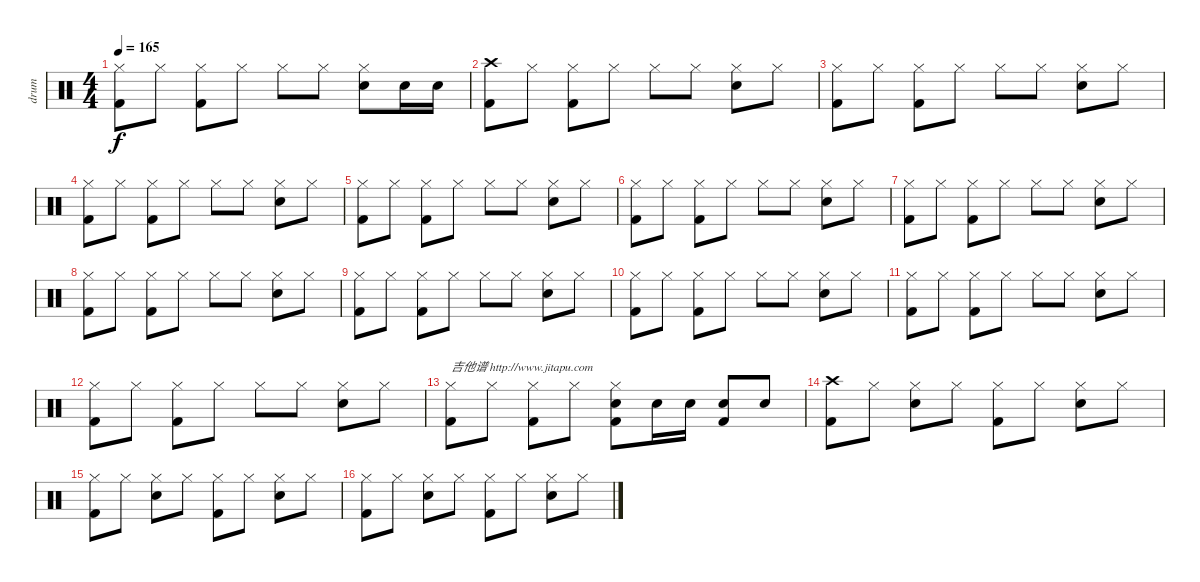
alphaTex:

\track ("drum" "drum") {instrument percussion}
\staff {score}
\articulation defaults
\ts (4 4)
\tempo 165
\clef neutral
\ks c
("Hi-Hat (closed)" "Kick (hit) 2").8{dy f} "Hi-Hat (closed)".8 ("Hi-Hat (closed)" "Kick (hit) 2").8 "Hi-Hat (closed)".8 "Hi-Hat (closed)".8 "Hi-Hat (closed)".8 ("Hi-Hat (closed)" "Snare (hit) 2").8 "Snare (hit) 2".16 "Snare (hit) 2".16 |
("Crash high (hit)" "Kick (hit) 2").8 "Hi-Hat (closed)".8 ("Hi-Hat (closed)" "Kick (hit) 2").8 "Hi-Hat (closed)".8 "Hi-Hat (closed)".8 "Hi-Hat (closed)".8 ("Hi-Hat (closed)" "Snare (hit) 2").8 "Hi-Hat (closed)".8 |
("Hi-Hat (closed)" "Kick (hit) 2").8 "Hi-Hat (closed)".8 ("Hi-Hat (closed)" "Kick (hit) 2").8 "Hi-Hat (closed)".8 "Hi-Hat (closed)".8 "Hi-Hat (closed)".8 ("Hi-Hat (closed)" "Snare (hit) 2").8 "Hi-Hat (closed)".8 |
("Hi-Hat (closed)" "Kick (hit) 2").8 "Hi-Hat (closed)".8 ("Hi-Hat (closed)" "Kick (hit) 2").8 "Hi-Hat (closed)".8 "Hi-Hat (closed)".8 "Hi-Hat (closed)".8 ("Hi-Hat (closed)" "Snare (hit) 2").8 "Hi-Hat (closed)".8 |
("Hi-Hat (closed)" "Kick (hit) 2").8 "Hi-Hat (closed)".8 ("Hi-Hat (closed)" "Kick (hit) 2").8 "Hi-Hat (closed)".8 "Hi-Hat (closed)".8 "Hi-Hat (closed)".8 ("Hi-Hat (closed)" "Snare (hit) 2").8 "Hi-Hat (closed)".8 |
("Hi-Hat (closed)" "Kick (hit) 2").8 "Hi-Hat (closed)".8 ("Hi-Hat (closed)" "Kick (hit) 2").8 "Hi-Hat (closed)".8 "Hi-Hat (closed)".8 "Hi-Hat (closed)".8 ("Hi-Hat (closed)" "Snare (hit) 2").8 "Hi-Hat (closed)".8 |
("Hi-Hat (closed)" "Kick (hit) 2").8 "Hi-Hat (closed)".8 ("Hi-Hat (closed)" "Kick (hit) 2").8 "Hi-Hat (closed)".8 "Hi-Hat (closed)".8 "Hi-Hat (closed)".8 ("Hi-Hat (closed)" "Snare (hit) 2").8 "Hi-Hat (closed)".8 |
("Hi-Hat (closed)" "Kick (hit) 2").8 "Hi-Hat (closed)".8 ("Hi-Hat (closed)" "Kick (hit) 2").8 "Hi-Hat (closed)".8 "Hi-Hat (closed)".8 "Hi-Hat (closed)".8 ("Hi-Hat (closed)" "Snare (hit) 2").8 "Hi-Hat (closed)".8 |
("Hi-Hat (closed)" "Kick (hit) 2").8 "Hi-Hat (closed)".8 ("Hi-Hat (closed)" "Kick (hit) 2").8 "Hi-Hat (closed)".8 "Hi-Hat (closed)".8 "Hi-Hat (closed)".8 ("Hi-Hat (closed)" "Snare (hit) 2").8 "Hi-Hat (closed)".8 |
("Hi-Hat (closed)" "Kick (hit) 2").8 "Hi-Hat (closed)".8 ("Hi-Hat (closed)" "Kick (hit) 2").8 "Hi-Hat (closed)".8 "Hi-Hat (closed)".8 "Hi-Hat (closed)".8 ("Hi-Hat (closed)" "Snare (hit) 2").8 "Hi-Hat (closed)".8 |
("Hi-Hat (closed)" "Kick (hit) 2").8 "Hi-Hat (closed)".8 ("Hi-Hat (closed)" "Kick (hit) 2").8 "Hi-Hat (closed)".8 "Hi-Hat (closed)".8 "Hi-Hat (closed)".8 ("Hi-Hat (closed)" "Snare (hit) 2").8 "Hi-Hat (closed)".8 |
("Hi-Hat (closed)" "Kick (hit) 2").8 "Hi-Hat (closed)".8 ("Hi-Hat (closed)" "Kick (hit) 2").8 "Hi-Hat (closed)".8 "Hi-Hat (closed)".8 "Hi-Hat (closed)".8 ("Hi-Hat (closed)" "Snare (hit) 2").8 "Hi-Hat (closed)".8 |
("Hi-Hat (closed)" "Kick (hit) 2").8{txt "吉他谱 http://www.jitapu.com"} "Hi-Hat (closed)".8 ("Hi-Hat (closed)" "Kick (hit) 2").8 "Hi-Hat (closed)".8 ("Hi-Hat (closed)" "Snare (hit) 2" "Kick (hit) 2").8 "Snare (hit) 2".16 "Snare (hit) 2".16 ("Snare (hit) 2" "Kick (hit) 2").8 "Snare (hit) 2".8 |
("Crash high (hit)" "Kick (hit) 2").8 "Hi-Hat (closed)".8 ("Hi-Hat (closed)" "Snare (hit) 2").8 "Hi-Hat (closed)".8 ("Hi-Hat (closed)" "Kick (hit) 2").8 "Hi-Hat (closed)".8 ("Hi-Hat (closed)" "Snare (hit) 2").8 "Hi-Hat (closed)".8 |
("Hi-Hat (closed)" "Kick (hit) 2").8 "Hi-Hat (closed)".8 ("Hi-Hat (closed)" "Snare (hit) 2").8 "Hi-Hat (closed)".8 ("Hi-Hat (closed)" "Kick (hit) 2").8 "Hi-Hat (closed)".8 ("Hi-Hat (closed)" "Snare (hit) 2").8 "Hi-Hat (closed)".8 |
("Hi-Hat (closed)" "Kick (hit) 2").8 "Hi-Hat (closed)".8 ("Hi-Hat (closed)" "Snare (hit) 2").8 "Hi-Hat (closed)".8 ("Hi-Hat (closed)" "Kick (hit) 2").8 "Hi-Hat (closed)".8 ("Hi-Hat (closed)" "Snare (hit) 2").8 "Hi-Hat (closed)".8
